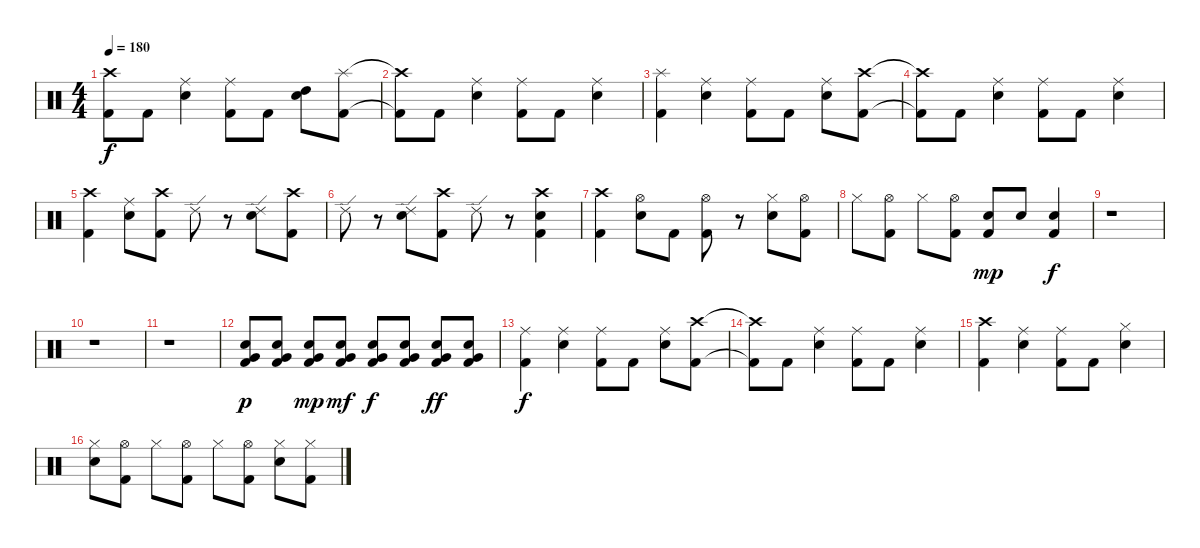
\track "" {instrument percussion}
\staff {score}
\articulation defaults
\ts (4 4)
\tempo 180
\clef neutral
\ks c
("Crash high (hit)"{t} "Kick (hit) 2"{t}).8{dy f} "Kick (hit) 2".8 ("Ride (middle)" "Electric Snare (hit)").4 ("Ride (middle)" "Kick (hit) 2").8 "Kick (hit) 2".8 ("High Tom (hit)" "Electric Snare (hit)").8 ("Splash (hit)" "Kick (hit) 2").8 |
("Crash high (hit)"{t} "Kick (hit) 2"{t}).8 "Kick (hit) 2".8 ("Ride (middle)" "Electric Snare (hit)").4 ("Ride (middle)" "Kick (hit) 2").8 "Kick (hit) 2".8 ("Ride (middle)" "Electric Snare (hit)").4 |
("Splash (hit)" "Kick (hit) 2").4 ("Ride (middle)" "Electric Snare (hit)").4 ("Ride (middle)" "Kick (hit) 2").8 "Kick (hit) 2".8 ("Ride (middle)" "Electric Snare (hit)").8 ("Crash high (hit)" "Kick (hit) 2").8 |
("Crash high (hit)"{t} "Kick (hit) 2"{t}).8 "Kick (hit) 2".8 ("Ride (middle)" "Electric Snare (hit)").4 ("Ride (middle)" "Kick (hit) 2").8 "Kick (hit) 2".8 ("Ride (middle)" "Electric Snare (hit)").4 |
("Crash high (hit)" "Kick (hit) 2").4 ("Ride (middle)" "Electric Snare (hit)").8 ("Crash high (hit)" "Kick (hit) 2").8 "Ride (edge) 2".8 r.8 ("Ride (edge) 2" "Electric Snare (hit)").8 ("Crash high (hit)" "Kick (hit) 2").8 |
"Ride (edge) 2".8 r.8 ("Ride (edge) 2" "Electric Snare (hit)").8 ("Crash high (hit)" "Kick (hit) 2").8 "Ride (edge) 2".8 r.8 ("Crash high (hit)" "Electric Snare (hit)" "Kick (hit) 2").4 |
("Crash high (hit)" "Kick (hit) 2").4 ("Hi-Hat (open)" "Electric Snare (hit)").8 "Kick (hit) 2".8 ("Hi-Hat (open)" "Kick (hit) 2").8 r.8 ("Hi-Hat (closed)" "Electric Snare (hit)").8 ("Hi-Hat (open)" "Kick (hit) 2").8 |
"Hi-Hat (closed)".8 ("Hi-Hat (open)" "Kick (hit) 2").8 "Hi-Hat (closed)".8 ("Hi-Hat (open)" "Kick (hit) 2").8 ("Electric Snare (hit)" "Kick (hit) 2").8{dy mp} "Electric Snare (hit)".8 ("Electric Snare (hit)" "Kick (hit) 2").4{dy f} |
r.1 |
r.1 |
r.1 |
("Very Low Tom (hit)" "Electric Snare (hit)" "Kick (hit) 2").8{dy p} ("Very Low Tom (hit)" "Electric Snare (hit)" "Kick (hit) 2").8 ("Very Low Tom (hit)" "Electric Snare (hit)" "Kick (hit) 2").8{dy mp} ("Very Low Tom (hit)" "Electric Snare (hit)" "Kick (hit) 2").8{dy mf} ("Very Low Tom (hit)" "Electric Snare (hit)" "Kick (hit) 2").8{dy f} ("Very Low Tom (hit)" "Electric Snare (hit)" "Kick (hit) 2").8 ("Very Low Tom (hit)" "Electric Snare (hit)" "Kick (hit) 2").8{dy ff} ("Very Low Tom (hit)" "Electric Snare (hit)" "Kick (hit) 2").8 |
("Ride (middle)" "Kick (hit) 2").4{dy f} ("Ride (middle)" "Electric Snare (hit)").4 ("Ride (middle)" "Kick (hit) 2").8 "Kick (hit) 2".8 ("Ride (middle)" "Electric Snare (hit)").8 ("Crash high (hit)" "Kick (hit) 2").8 |
("Crash high (hit)"{t} "Kick (hit) 2"{t}).8 "Kick (hit) 2".8 ("Ride (middle)" "Electric Snare (hit)").4 ("Ride (middle)" "Kick (hit) 2").8 "Kick (hit) 2".8 ("Ride (middle)" "Electric Snare (hit)").4 |
("Crash high (hit)" "Kick (hit) 2").4 ("Ride (middle)" "Electric Snare (hit)").4 ("Ride (middle)" "Kick (hit) 2").8 "Kick (hit) 2".8 ("Hi-Hat (closed)" "Electric Snare (hit)").4 |
("Hi-Hat (closed)" "Electric Snare (hit)").8 ("Hi-Hat (open)" "Kick (hit) 2").8 "Hi-Hat (closed)".8 ("Hi-Hat (open)" "Kick (hit) 2").8 "Hi-Hat (closed)".8 ("Hi-Hat (open)" "Kick (hit) 2").8 ("Hi-Hat (closed)" "Electric Snare (hit)").8 ("Hi-Hat (closed)" "Kick (hit) 2").8
